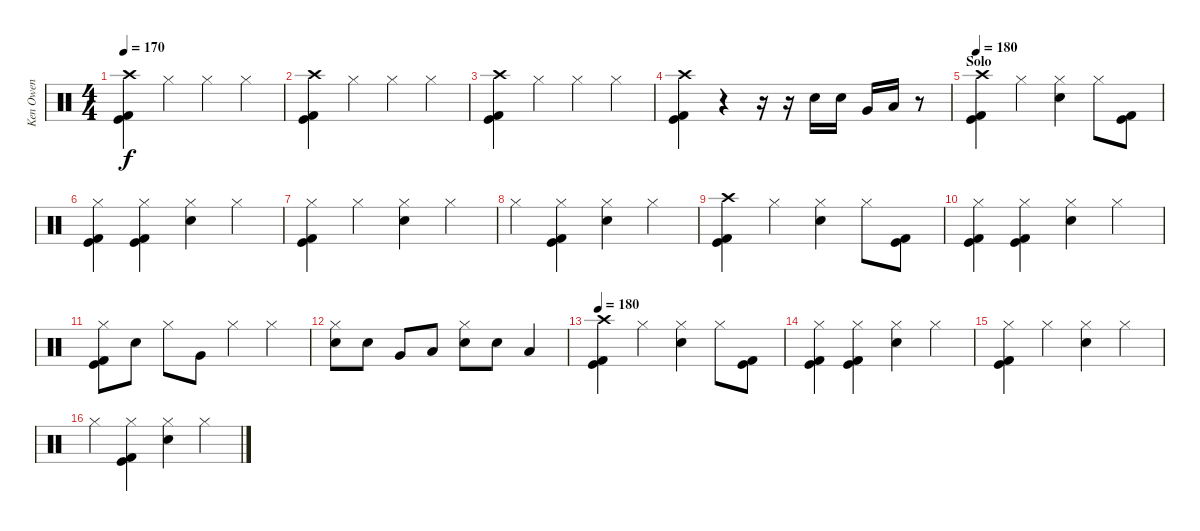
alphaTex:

\track ("Ken Owen" "Ken Owen") {instrument percussion}
\staff {score}
\articulation defaults
\ts (4 4)
\tempo 170
\clef neutral
\ks c
("Crash high (hit)" "Kick (hit)" "Kick (hit) 2").4{dy f} "Hi-Hat (closed)".4 "Hi-Hat (closed)".4 "Hi-Hat (closed)".4 |
("Crash high (hit)" "Kick (hit)" "Kick (hit) 2").4 "Hi-Hat (closed)".4 "Hi-Hat (closed)".4 "Hi-Hat (closed)".4 |
("Crash high (hit)" "Kick (hit)" "Kick (hit) 2").4 "Hi-Hat (closed)".4 "Hi-Hat (closed)".4 "Hi-Hat (closed)".4 |
("Crash high (hit)" "Kick (hit)" "Kick (hit) 2").4 r.4 r.16 r.16 "Electric Snare (hit)".16 "Electric Snare (hit)".16 "Very Low Tom (hit)".16 "Low Floor Tom (hit)".16 r.8 |
\section ("" "Solo")
\tempo 180
("Crash high (hit)" "Kick (hit)" "Kick (hit) 2").4 "Hi-Hat (closed)".4 ("Hi-Hat (closed)" "Electric Snare (hit)").4 "Hi-Hat (closed)".8 ("Kick (hit)" "Kick (hit) 2").8 |
("Hi-Hat (closed)" "Kick (hit)" "Kick (hit) 2").4 ("Hi-Hat (closed)" "Kick (hit)" "Kick (hit) 2").4 ("Hi-Hat (closed)" "Electric Snare (hit)").4 "Hi-Hat (closed)".4 |
("Hi-Hat (closed)" "Kick (hit)" "Kick (hit) 2").4 "Hi-Hat (closed)".4 ("Hi-Hat (closed)" "Electric Snare (hit)").4 "Hi-Hat (closed)".4 |
"Hi-Hat (closed)".4 ("Hi-Hat (closed)" "Kick (hit)" "Kick (hit) 2").4 ("Hi-Hat (closed)" "Electric Snare (hit)").4 "Hi-Hat (closed)".4 |
("Crash high (hit)" "Kick (hit)" "Kick (hit) 2").4 "Hi-Hat (closed)".4 ("Hi-Hat (closed)" "Electric Snare (hit)").4 "Hi-Hat (closed)".8 ("Kick (hit)" "Kick (hit) 2").8 |
("Hi-Hat (closed)" "Kick (hit)" "Kick (hit) 2").4 ("Hi-Hat (closed)" "Kick (hit)" "Kick (hit) 2").4 ("Hi-Hat (closed)" "Electric Snare (hit)").4 "Hi-Hat (closed)".4 |
("Hi-Hat (closed)" "Kick (hit)" "Kick (hit) 2").8 "Electric Snare (hit)".8 "Hi-Hat (closed)".8 "Very Low Tom (hit)".8 "Hi-Hat (closed)".4 "Hi-Hat (closed)".4 |
("Hi-Hat (closed)" "Electric Snare (hit)").8 "Electric Snare (hit)".8 "Very Low Tom (hit)".8 "Low Floor Tom (hit)".8 ("Hi-Hat (closed)" "Electric Snare (hit)").8 "Electric Snare (hit)".8 "Low Floor Tom (hit)".4 |
\tempo 180
("Crash high (hit)" "Kick (hit)" "Kick (hit) 2").4 "Hi-Hat (closed)".4 ("Hi-Hat (closed)" "Electric Snare (hit)").4 "Hi-Hat (closed)".8 ("Kick (hit)" "Kick (hit) 2").8 |
("Hi-Hat (closed)" "Kick (hit)" "Kick (hit) 2").4 ("Hi-Hat (closed)" "Kick (hit)" "Kick (hit) 2").4 ("Hi-Hat (closed)" "Electric Snare (hit)").4 "Hi-Hat (closed)".4 |
("Hi-Hat (closed)" "Kick (hit)" "Kick (hit) 2").4 "Hi-Hat (closed)".4 ("Hi-Hat (closed)" "Electric Snare (hit)").4 "Hi-Hat (closed)".4 |
"Hi-Hat (closed)".4 ("Hi-Hat (closed)" "Kick (hit)" "Kick (hit) 2").4 ("Hi-Hat (closed)" "Electric Snare (hit)").4 "Hi-Hat (closed)".4
